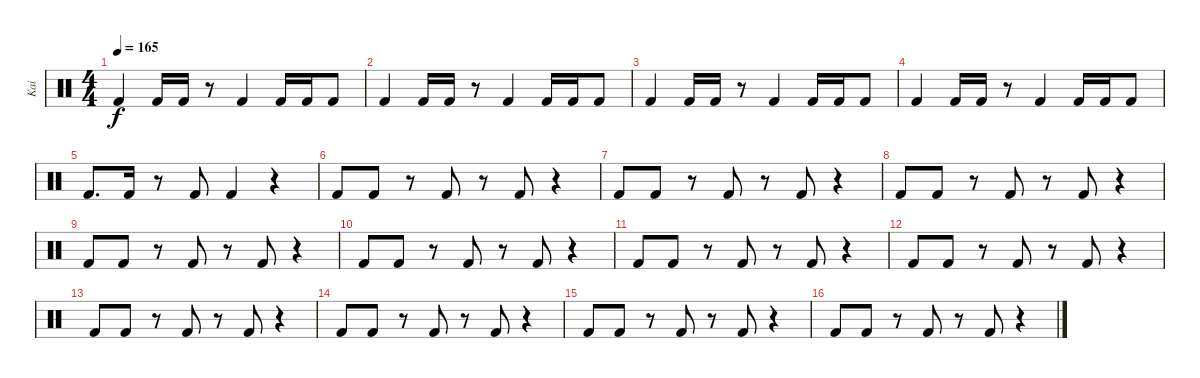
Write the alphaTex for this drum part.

\track ("Kai" "Kai") {instrument percussion}
\staff {score}
\articulation defaults
\ts (4 4)
\tempo 165
\clef neutral
\ks c "Kick (hit) 2".4{dy f} "Kick (hit) 2".16 "Kick (hit) 2".16
r.8 "Kick (hit) 2".4 "Kick (hit) 2".16 "Kick (hit) 2".16 "Kick (hit) 2".8 |
"Kick (hit) 2".4 "Kick (hit) 2".16 "Kick (hit) 2".16 r.8 "Kick (hit) 2".4 "Kick (hit) 2".16 "Kick (hit) 2".16 "Kick (hit) 2".8 |
"Kick (hit) 2".4 "Kick (hit) 2".16 "Kick (hit) 2".16 r.8 "Kick (hit) 2".4 "Kick (hit) 2".16 "Kick (hit) 2".16 "Kick (hit) 2".8 |
"Kick (hit) 2".4 "Kick (hit) 2".16 "Kick (hit) 2".16 r.8 "Kick (hit) 2".4 "Kick (hit) 2".16 "Kick (hit) 2".16 "Kick (hit) 2".8 |
"Kick (hit) 2".8{d} "Kick (hit) 2".16 r.8 "Kick (hit) 2".8 "Kick (hit) 2".4 r.4 |
"Kick (hit) 2".8 "Kick (hit) 2".8 r.8 "Kick (hit) 2".8 r.8 "Kick (hit) 2".8 r.4 |
"Kick (hit) 2".8 "Kick (hit) 2".8 r.8 "Kick (hit) 2".8 r.8 "Kick (hit) 2".8 r.4 |
"Kick (hit) 2".8 "Kick (hit) 2".8 r.8 "Kick (hit) 2".8 r.8 "Kick (hit) 2".8 r.4 |
"Kick (hit) 2".8 "Kick (hit) 2".8 r.8 "Kick (hit) 2".8 r.8 "Kick (hit) 2".8 r.4 |
"Kick (hit) 2".8 "Kick (hit) 2".8 r.8 "Kick (hit) 2".8 r.8 "Kick (hit) 2".8 r.4 |
"Kick (hit) 2".8 "Kick (hit) 2".8 r.8 "Kick (hit) 2".8 r.8 "Kick (hit) 2".8 r.4 |
"Kick (hit) 2".8 "Kick (hit) 2".8 r.8 "Kick (hit) 2".8 r.8 "Kick (hit) 2".8 r.4 |
"Kick (hit) 2".8 "Kick (hit) 2".8 r.8 "Kick (hit) 2".8 r.8 "Kick (hit) 2".8 r.4 |
"Kick (hit) 2".8 "Kick (hit) 2".8 r.8 "Kick (hit) 2".8 r.8 "Kick (hit) 2".8 r.4 |
"Kick (hit) 2".8 "Kick (hit) 2".8 r.8 "Kick (hit) 2".8 r.8 "Kick (hit) 2".8 r.4 |
"Kick (hit) 2".8 "Kick (hit) 2".8 r.8 "Kick (hit) 2".8 r.8 "Kick (hit) 2".8 r.4
